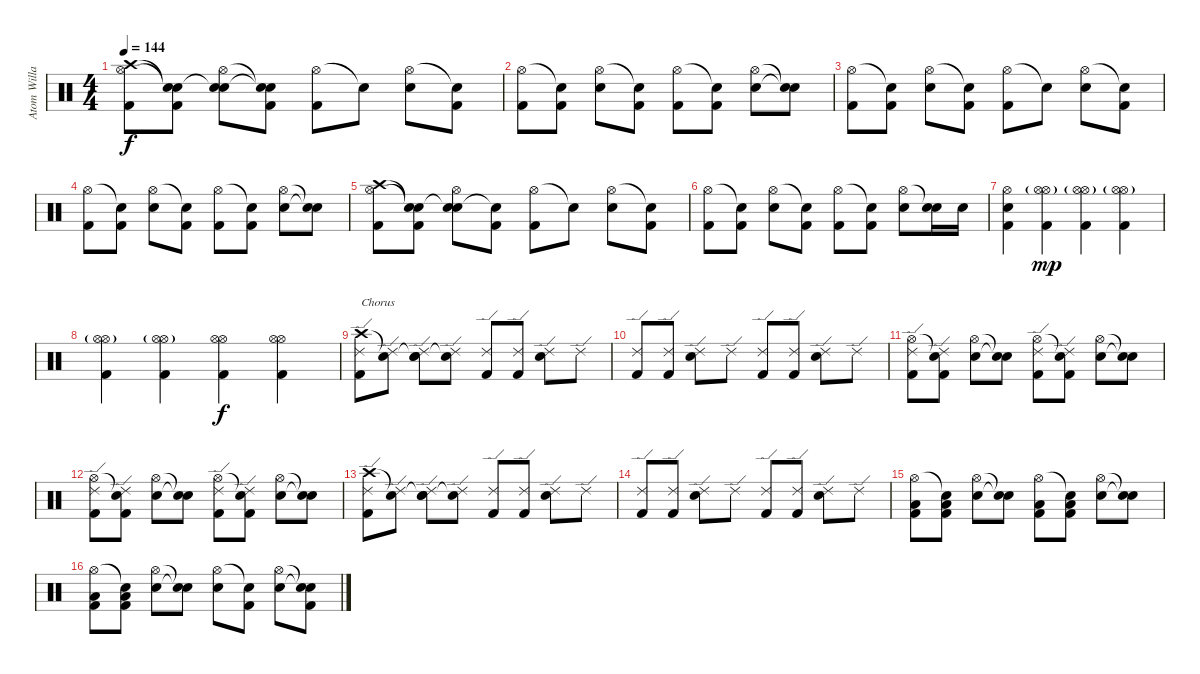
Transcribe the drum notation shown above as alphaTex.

\track ("Atom Willard (Drums)" "Atom Willa") {instrument percussion}
\staff {score}
\articulation defaults
\ts (4 4)
\tempo 144
\clef neutral
\ks c
("Crash high (hit)" "Hi-Hat (open)" "Kick (hit) 2").8{dy f} ("Snare (hit)"{t} "Snare (hit)"{t} "Kick (hit) 2").8 ("Snare (hit)"{t} "Hi-Hat (open)" "Electric Snare (hit)").8 ("Snare (hit)"{t} "Snare (hit)"{t} "Kick (hit) 2").8 ("Hi-Hat (open)" "Kick (hit) 2").8 "Snare (hit)"{t}.8 ("Hi-Hat (open)" "Electric Snare (hit)").8 ("Snare (hit)"{t} "Kick (hit) 2").8 |
("Hi-Hat (open)" "Kick (hit) 2").8 ("Snare (hit)"{t} "Kick (hit) 2").8 ("Hi-Hat (open)" "Electric Snare (hit)").8 ("Snare (hit)"{t} "Kick (hit) 2").8 ("Hi-Hat (open)" "Kick (hit) 2").8 ("Snare (hit)"{t} "Kick (hit) 2").8 ("Hi-Hat (open)" "Electric Snare (hit)").8 ("Snare (hit)"{t} "Snare (hit)"{t}).8 |
("Hi-Hat (open)" "Kick (hit) 2").8 ("Snare (hit)"{t} "Kick (hit) 2").8 ("Hi-Hat (open)" "Electric Snare (hit)").8 ("Snare (hit)"{t} "Kick (hit) 2").8 ("Hi-Hat (open)" "Kick (hit) 2").8 "Snare (hit)"{t}.8 ("Hi-Hat (open)" "Electric Snare (hit)").8 ("Snare (hit)"{t} "Kick (hit) 2").8 |
("Hi-Hat (open)" "Kick (hit) 2").8 ("Snare (hit)"{t} "Kick (hit) 2").8 ("Hi-Hat (open)" "Electric Snare (hit)").8 ("Snare (hit)"{t} "Kick (hit) 2").8 ("Hi-Hat (open)" "Kick (hit) 2").8 ("Snare (hit)"{t} "Kick (hit) 2").8 ("Hi-Hat (open)" "Electric Snare (hit)").8 ("Snare (hit)"{t} "Snare (hit)"{t}).8 |
("Crash high (hit)" "Hi-Hat (open)" "Kick (hit) 2").8 ("Snare (hit)"{t} "Snare (hit)"{t} "Kick (hit) 2").8 ("Snare (hit)"{t} "Hi-Hat (open)" "Electric Snare (hit)").8 ("Snare (hit)"{t} "Kick (hit) 2").8 ("Hi-Hat (open)" "Kick (hit) 2").8 "Snare (hit)"{t}.8 ("Hi-Hat (open)" "Electric Snare (hit)").8 ("Snare (hit)"{t} "Kick (hit) 2").8 |
("Hi-Hat (open)" "Kick (hit) 2").8 ("Snare (hit)"{t} "Kick (hit) 2").8 ("Hi-Hat (open)" "Electric Snare (hit)").8 ("Snare (hit)"{t} "Kick (hit) 2").8 ("Hi-Hat (open)" "Kick (hit) 2").8 ("Snare (hit)"{t} "Kick (hit) 2").8 ("Hi-Hat (open)" "Electric Snare (hit)").8 ("Snare (hit)"{t} "Electric Snare (hit)").16 "Electric Snare (hit)".16 |
("Hi-Hat (open)" "Electric Snare (hit)" "Kick (hit) 2").4 ("Hi-Hat (open)" "Hi-Hat (open)"{g} "Kick (hit) 2").4{dy mp} ("Hi-Hat (open)" "Hi-Hat (open)"{g} "Kick (hit) 2").4 ("Hi-Hat (open)" "Hi-Hat (open)"{g} "Kick (hit) 2").4 |
("Hi-Hat (open)" "Hi-Hat (open)"{g} "Kick (hit) 2").4 ("Hi-Hat (open)" "Hi-Hat (open)"{g} "Kick (hit) 2").4 ("Hi-Hat (open)" "Hi-Hat (open)" "Kick (hit) 2").4{dy f} ("Hi-Hat (open)" "Hi-Hat (open)" "Kick (hit) 2").4 |
("Crash high (hit)" "Ride (edge) 2" "Kick (hit) 2").8{txt "Chorus"} ("Snare (hit)"{t} "Ride (edge) 2").8 ("Snare (hit)"{t} "Ride (edge) 2" "Electric Snare (hit)").8 ("Snare (hit)"{t} "Ride (edge) 2").8 ("Ride (edge) 2" "Kick (hit) 2").8 ("Ride (edge) 2" "Kick (hit) 2").8 ("Ride (edge) 2" "Electric Snare (hit)").8 "Ride (edge) 2".8 |
("Ride (edge) 2" "Kick (hit) 2").8 ("Ride (edge) 2" "Kick (hit) 2").8 ("Ride (edge) 2" "Electric Snare (hit)").8 "Ride (edge) 2".8 ("Ride (edge) 2" "Kick (hit) 2").8 ("Ride (edge) 2" "Kick (hit) 2").8 ("Ride (edge) 2" "Electric Snare (hit)").8 "Ride (edge) 2".8 |
("Hi-Hat (open)" "Ride (edge) 2" "Kick (hit) 2").8 ("Snare (hit)"{t} "Ride (edge) 2" "Kick (hit) 2").8 ("Hi-Hat (open)" "Electric Snare (hit)").8 ("Snare (hit)"{t} "Snare (hit)"{t}).8 ("Hi-Hat (open)" "Ride (edge) 2" "Kick (hit) 2").8 ("Snare (hit)"{t} "Ride (edge) 2" "Kick (hit) 2").8 ("Hi-Hat (open)" "Electric Snare (hit)").8 ("Snare (hit)"{t} "Snare (hit)"{t}).8 |
("Hi-Hat (open)" "Ride (edge) 2" "Kick (hit) 2").8 ("Snare (hit)"{t} "Ride (edge) 2" "Kick (hit) 2").8 ("Hi-Hat (open)" "Electric Snare (hit)").8 ("Snare (hit)"{t} "Snare (hit)"{t}).8 ("Hi-Hat (open)" "Ride (edge) 2" "Kick (hit) 2").8 ("Snare (hit)"{t} "Ride (edge) 2" "Kick (hit) 2").8 ("Hi-Hat (open)" "Electric Snare (hit)").8 ("Snare (hit)"{t} "Snare (hit)"{t}).8 |
("Crash high (hit)" "Ride (edge) 2" "Kick (hit) 2").8 ("Snare (hit)"{t} "Ride (edge) 2").8 ("Snare (hit)"{t} "Ride (edge) 2" "Electric Snare (hit)").8 ("Snare (hit)"{t} "Ride (edge) 2").8 ("Ride (edge) 2" "Kick (hit) 2").8 ("Ride (edge) 2" "Kick (hit) 2").8 ("Ride (edge) 2" "Electric Snare (hit)").8 "Ride (edge) 2".8 |
("Ride (edge) 2" "Kick (hit) 2").8 ("Ride (edge) 2" "Kick (hit) 2").8 ("Ride (edge) 2" "Electric Snare (hit)").8 "Ride (edge) 2".8 ("Ride (edge) 2" "Kick (hit) 2").8 ("Ride (edge) 2" "Kick (hit) 2").8 ("Ride (edge) 2" "Electric Snare (hit)").8 "Ride (edge) 2".8 |
("Hi-Hat (open)" "Low Tom (hit)" "Kick (hit) 2").8 ("Snare (hit)"{t} "Low Tom (hit)" "Kick (hit) 2").8 ("Hi-Hat (open)" "Electric Snare (hit)").8 ("Snare (hit)"{t} "Snare (hit)"{t}).8 ("Hi-Hat (open)" "Low Tom (hit)" "Kick (hit) 2").8 ("Snare (hit)"{t} "Low Tom (hit)" "Kick (hit) 2").8 ("Hi-Hat (open)" "Electric Snare (hit)").8 ("Snare (hit)"{t} "Snare (hit)"{t}).8 |
("Hi-Hat (open)" "Low Tom (hit)" "Kick (hit) 2").8 ("Snare (hit)"{t} "Low Tom (hit)" "Kick (hit) 2").8 ("Hi-Hat (open)" "Electric Snare (hit)").8 ("Snare (hit)"{t} "Snare (hit)"{t}).8 ("Hi-Hat (open)" "Electric Snare (hit)").8 ("Snare (hit)"{t} "Kick (hit) 2").8 ("Hi-Hat (open)" "Electric Snare (hit)").8 ("Snare (hit)"{t} "Snare (hit)"{t} "Kick (hit) 2").8
